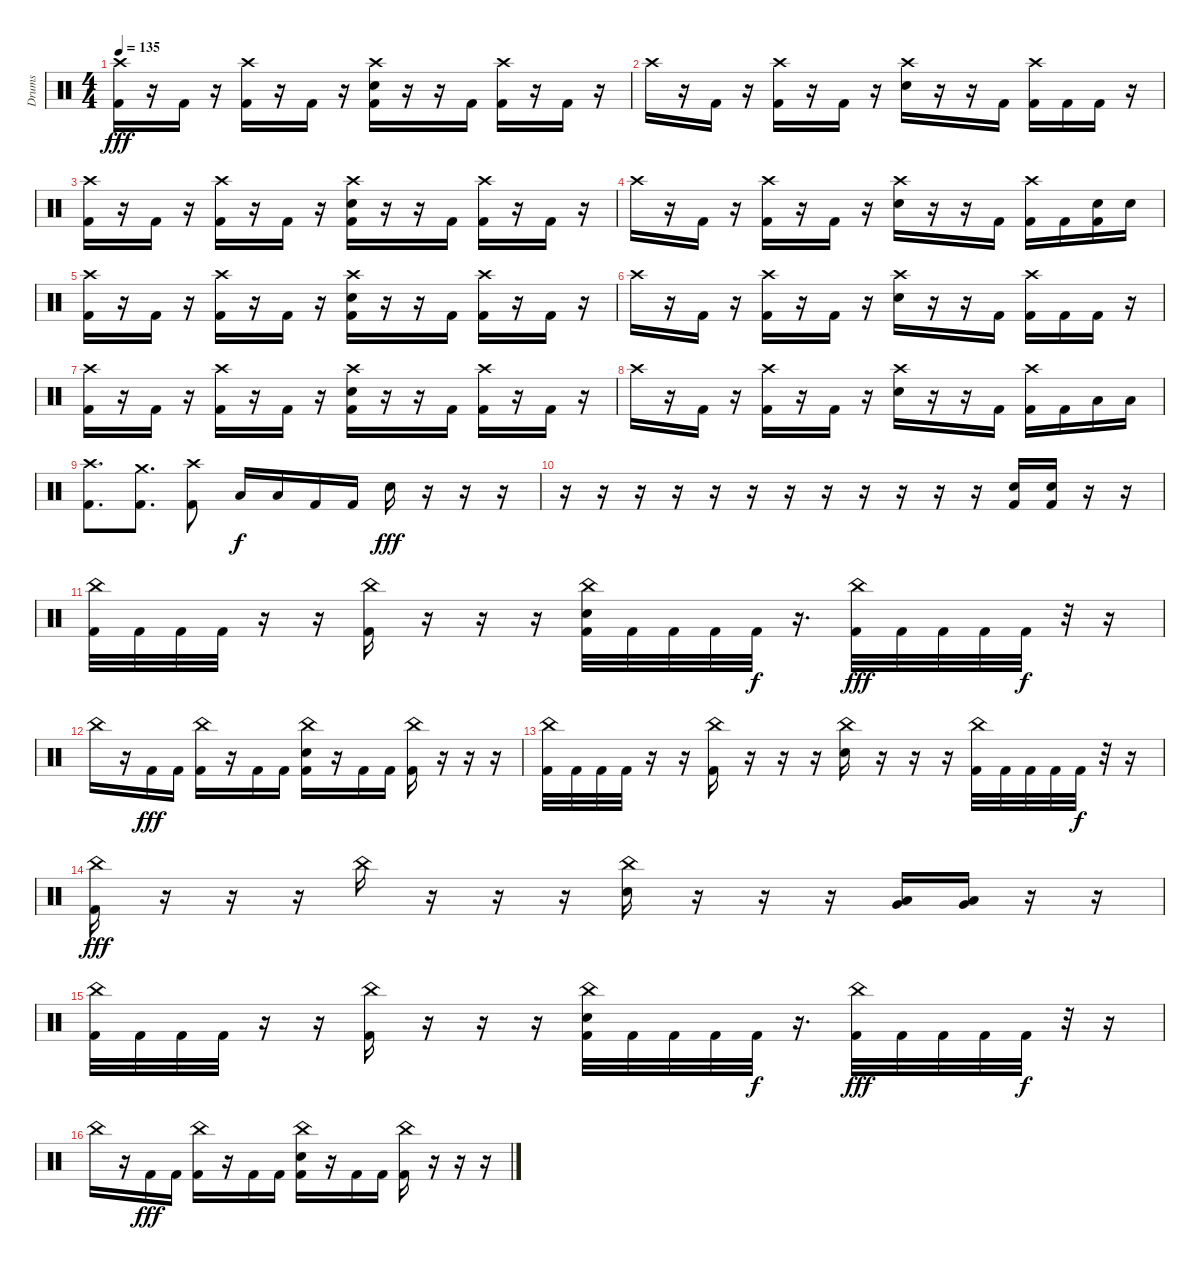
\track ("Drums" "Drums") {instrument percussion}
\staff {score}
\articulation defaults
\ts (4 4)
\tempo 135
\clef neutral
\ks c
("Crash high (hit)" "Kick (hit) 2").16{dy fff} r.16 "Kick (hit) 2".16 r.16 ("Crash high (hit)" "Kick (hit) 2").16 r.16 "Kick (hit) 2".16 r.16 ("Crash high (hit)" "Electric Snare (hit)" "Kick (hit) 2").16 r.16 r.16 "Kick (hit) 2".16 ("Crash high (hit)" "Kick (hit) 2").16 r.16 "Kick (hit) 2".16 r.16 |
"Crash high (hit)".16 r.16 "Kick (hit) 2".16 r.16 ("Crash high (hit)" "Kick (hit) 2").16 r.16 "Kick (hit) 2".16 r.16 ("Crash high (hit)" "Electric Snare (hit)").16 r.16 r.16 "Kick (hit) 2".16 ("Crash high (hit)" "Kick (hit) 2").16 "Kick (hit) 2".16 "Kick (hit) 2".16 r.16 |
("Crash high (hit)" "Kick (hit) 2").16 r.16 "Kick (hit) 2".16 r.16 ("Crash high (hit)" "Kick (hit) 2").16 r.16 "Kick (hit) 2".16 r.16 ("Crash high (hit)" "Electric Snare (hit)" "Kick (hit) 2").16 r.16 r.16 "Kick (hit) 2".16 ("Crash high (hit)" "Kick (hit) 2").16 r.16 "Kick (hit) 2".16 r.16 |
"Crash high (hit)".16 r.16 "Kick (hit) 2".16 r.16 ("Crash high (hit)" "Kick (hit) 2").16 r.16 "Kick (hit) 2".16 r.16 ("Crash high (hit)" "Electric Snare (hit)").16 r.16 r.16 "Kick (hit) 2".16 ("Crash high (hit)" "Kick (hit) 2").16 "Kick (hit) 2".16 ("Electric Snare (hit)" "Kick (hit) 2").16 "Electric Snare (hit)".16 |
("Crash high (hit)" "Kick (hit) 2").16 r.16 "Kick (hit) 2".16 r.16 ("Crash high (hit)" "Kick (hit) 2").16 r.16 "Kick (hit) 2".16 r.16 ("Crash high (hit)" "Electric Snare (hit)" "Kick (hit) 2").16 r.16 r.16 "Kick (hit) 2".16 ("Crash high (hit)" "Kick (hit) 2").16 r.16 "Kick (hit) 2".16 r.16 |
"Crash high (hit)".16 r.16 "Kick (hit) 2".16 r.16 ("Crash high (hit)" "Kick (hit) 2").16 r.16 "Kick (hit) 2".16 r.16 ("Crash high (hit)" "Electric Snare (hit)").16 r.16 r.16 "Kick (hit) 2".16 ("Crash high (hit)" "Kick (hit) 2").16 "Kick (hit) 2".16 "Kick (hit) 2".16 r.16 |
("Crash high (hit)" "Kick (hit) 2").16 r.16 "Kick (hit) 2".16 r.16 ("Crash high (hit)" "Kick (hit) 2").16 r.16 "Kick (hit) 2".16 r.16 ("Crash high (hit)" "Electric Snare (hit)" "Kick (hit) 2").16 r.16 r.16 "Kick (hit) 2".16 ("Crash high (hit)" "Kick (hit) 2").16 r.16 "Kick (hit) 2".16 r.16 |
"Crash high (hit)".16 r.16 "Kick (hit) 2".16 r.16 ("Crash high (hit)" "Kick (hit) 2").16 r.16 "Kick (hit) 2".16 r.16 ("Crash high (hit)" "Electric Snare (hit)").16 r.16 r.16 "Kick (hit) 2".16 ("Crash high (hit)" "Kick (hit) 2").16 "Kick (hit) 2".16 "Low Tom (hit)".16 "Low Tom (hit)".16 |
("Crash high (hit)" "Kick (hit) 2").8{d} ("Crash medium (hit)" "Kick (hit) 2").8{d} ("Crash high (hit)" "Kick (hit) 2").8 "Low Tom (hit)".16{dy f} "Low Tom (hit)".16 "Kick (hit) 2".16 "Kick (hit) 2".16 "Electric Snare (hit)".16{dy fff} r.16 r.16 r.16 |
r.16 r.16 r.16 r.16 r.16 r.16 r.16 r.16 r.16 r.16 r.16 r.16 ("Electric Snare (hit)" "Kick (hit) 2").16 ("Electric Snare (hit)" "Kick (hit) 2").16 r.16 r.16 |
("China (hit)" "Kick (hit) 2").32 "Kick (hit) 2".32 "Kick (hit) 2".32 "Kick (hit) 2".32 r.16 r.16 ("China (hit)" "Kick (hit) 2").16 r.16 r.16 r.16 ("China (hit)" "Electric Snare (hit)" "Kick (hit) 2").32 "Kick (hit) 2".32 "Kick (hit) 2".32 "Kick (hit) 2".32 "Kick (hit) 2".32{dy f} r.16{d} ("China (hit)" "Kick (hit) 2").32{dy fff} "Kick (hit) 2".32 "Kick (hit) 2".32 "Kick (hit) 2".32 "Kick (hit) 2".32{dy f} r.32 r.16 |
"China (hit)".16 r.16 "Kick (hit) 2".16{dy fff} "Kick (hit) 2".16 ("China (hit)" "Kick (hit) 2").16 r.16 "Kick (hit) 2".16 "Kick (hit) 2".16 ("China (hit)" "Electric Snare (hit)" "Kick (hit) 2").16 r.16 "Kick (hit) 2".16 "Kick (hit) 2".16 ("China (hit)" "Kick (hit) 2").16 r.16 r.16 r.16 |
("China (hit)" "Kick (hit) 2").32 "Kick (hit) 2".32 "Kick (hit) 2".32 "Kick (hit) 2".32 r.16 r.16 ("China (hit)" "Kick (hit) 2").16 r.16 r.16 r.16 ("China (hit)" "Electric Snare (hit)").16 r.16 r.16 r.16 ("China (hit)" "Kick (hit) 2").32 "Kick (hit) 2".32 "Kick (hit) 2".32 "Kick (hit) 2".32 "Kick (hit) 2".32{dy f} r.32 r.16 |
("China (hit)" "Kick (hit) 2").16{dy fff} r.16 r.16 r.16 "China (hit)".16 r.16 r.16 r.16 ("China (hit)" "Electric Snare (hit)").16 r.16 r.16 r.16 ("Low Tom (hit)" "Very Low Tom (hit)").16 ("Low Tom (hit)" "Very Low Tom (hit)").16 r.16 r.16 |
("China (hit)" "Kick (hit) 2").32 "Kick (hit) 2".32 "Kick (hit) 2".32 "Kick (hit) 2".32 r.16 r.16 ("China (hit)" "Kick (hit) 2").16 r.16 r.16 r.16 ("China (hit)" "Electric Snare (hit)" "Kick (hit) 2").32 "Kick (hit) 2".32 "Kick (hit) 2".32 "Kick (hit) 2".32 "Kick (hit) 2".32{dy f} r.16{d} ("China (hit)" "Kick (hit) 2").32{dy fff} "Kick (hit) 2".32 "Kick (hit) 2".32 "Kick (hit) 2".32 "Kick (hit) 2".32{dy f} r.32 r.16 |
"China (hit)".16 r.16 "Kick (hit) 2".16{dy fff} "Kick (hit) 2".16 ("China (hit)" "Kick (hit) 2").16 r.16 "Kick (hit) 2".16 "Kick (hit) 2".16 ("China (hit)" "Electric Snare (hit)" "Kick (hit) 2").16 r.16 "Kick (hit) 2".16 "Kick (hit) 2".16 ("China (hit)" "Kick (hit) 2").16 r.16 r.16 r.16
